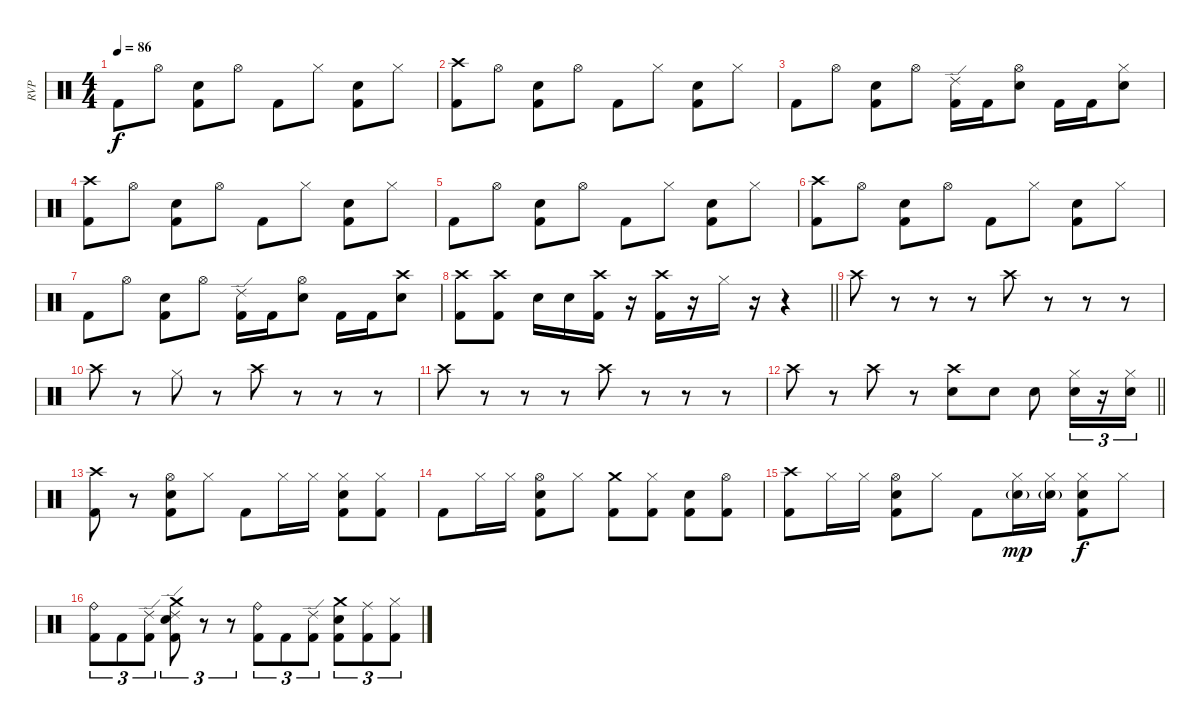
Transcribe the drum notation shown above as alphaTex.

\track ("RVP" "RVP") {instrument percussion}
\staff {score}
\articulation defaults
\ts (4 4)
\tempo 86
\clef neutral
\ks c "Kick (hit) 2".8{dy f} "Hi-Hat (open)".8
("Electric Snare (hit)" "Kick (hit) 2").8 "Hi-Hat (open)".8 "Kick (hit) 2".8 "Hi-Hat (closed)".8 ("Electric Snare (hit)" "Kick (hit) 2").8 "Hi-Hat (closed)".8 |
("Crash high (hit)" "Kick (hit) 2").8 "Hi-Hat (open)".8 ("Electric Snare (hit)" "Kick (hit) 2").8 "Hi-Hat (open)".8 "Kick (hit) 2".8 "Hi-Hat (closed)".8 ("Electric Snare (hit)" "Kick (hit) 2").8 "Hi-Hat (closed)".8 |
"Kick (hit) 2".8 "Hi-Hat (open)".8 ("Electric Snare (hit)" "Kick (hit) 2").8 "Hi-Hat (open)".8 ("Ride (edge) 2" "Kick (hit) 2").16 "Kick (hit) 2".16 ("Hi-Hat (open)" "Electric Snare (hit)").8 "Kick (hit) 2".16 "Kick (hit) 2".16 ("Hi-Hat (closed)" "Electric Snare (hit)").8 |
("Crash high (hit)" "Kick (hit) 2").8 "Hi-Hat (open)".8 ("Electric Snare (hit)" "Kick (hit) 2").8 "Hi-Hat (open)".8 "Kick (hit) 2".8 "Hi-Hat (closed)".8 ("Electric Snare (hit)" "Kick (hit) 2").8 "Hi-Hat (closed)".8 |
"Kick (hit) 2".8 "Hi-Hat (open)".8 ("Electric Snare (hit)" "Kick (hit) 2").8 "Hi-Hat (open)".8 "Kick (hit) 2".8 "Hi-Hat (closed)".8 ("Electric Snare (hit)" "Kick (hit) 2").8 "Hi-Hat (closed)".8 |
("Crash high (hit)" "Kick (hit) 2").8 "Hi-Hat (open)".8 ("Electric Snare (hit)" "Kick (hit) 2").8 "Hi-Hat (open)".8 "Kick (hit) 2".8 "Hi-Hat (closed)".8 ("Electric Snare (hit)" "Kick (hit) 2").8 "Hi-Hat (closed)".8 |
"Kick (hit) 2".8 "Hi-Hat (open)".8 ("Electric Snare (hit)" "Kick (hit) 2").8 "Hi-Hat (open)".8 ("Ride (edge) 2" "Kick (hit) 2").16 "Kick (hit) 2".16 ("Hi-Hat (open)" "Electric Snare (hit)").8 "Kick (hit) 2".16 "Kick (hit) 2".16 ("Crash high (hit)" "Electric Snare (hit)").8 |
\barLineRight lightlight
("Crash high (hit)" "Kick (hit) 2").8 ("Crash high (hit)" "Kick (hit) 2").8 "Electric Snare (hit)".16 "Electric Snare (hit)".16 ("Crash high (hit)" "Kick (hit) 2").16 r.16 ("Crash high (hit)" "Kick (hit) 2").16 r.16 "Hi-Hat (closed)".16 r.16 r.4 |
"Crash high (hit)".8 r.8 r.8 r.8 "Crash high (hit)".8 r.8 r.8 r.8 |
"Crash high (hit)".8 r.8 "Hi-Hat (closed)".8 r.8 "Crash high (hit)".8 r.8 r.8 r.8 |
"Crash high (hit)".8 r.8 r.8 r.8 "Crash high (hit)".8 r.8 r.8 r.8 |
\barLineRight lightlight "Crash high (hit)".8
r.8 "Crash high (hit)".8 r.8 ("Crash high (hit)" "Electric Snare (hit)").8 "Electric Snare (hit)".8 "Electric Snare (hit)".8 ("Hi-Hat (closed)" "Electric Snare (hit)").16{tu (3 2)} r.16{tu (3 2)} ("Hi-Hat (closed)" "Electric Snare (hit)").16{tu (3 2)} |
("Crash high (hit)" "Kick (hit) 2").8 r.8 ("Hi-Hat (open)" "Electric Snare (hit)" "Kick (hit) 2").8 "Hi-Hat (closed)".8 "Kick (hit) 2".8 "Hi-Hat (closed)".16 "Hi-Hat (closed)".16 ("Hi-Hat (closed)" "Electric Snare (hit)" "Kick (hit) 2").8 ("Hi-Hat (closed)" "Kick (hit) 2").8 |
"Kick (hit) 2".8 "Hi-Hat (closed)".16 "Hi-Hat (closed)".16 ("Hi-Hat (open)" "Electric Snare (hit)" "Kick (hit) 2").8 "Hi-Hat (closed)".8 ("Crash medium (hit)" "Kick (hit) 2").8 ("Hi-Hat (closed)" "Kick (hit) 2").8 ("Electric Snare (hit)" "Kick (hit) 2").8 ("Hi-Hat (open)" "Kick (hit) 2").8 |
("Crash high (hit)" "Kick (hit) 2").8 "Hi-Hat (closed)".16 "Hi-Hat (closed)".16 ("Hi-Hat (open)" "Electric Snare (hit)" "Kick (hit) 2").8 "Hi-Hat (closed)".8 "Kick (hit) 2".8 ("Hi-Hat (closed)" "Electric Snare (hit)"{g}).16{dy mp} ("Hi-Hat (closed)" "Electric Snare (hit)"{g}).16 ("Hi-Hat (closed)" "Electric Snare (hit)" "Kick (hit) 2").8{dy f} "Hi-Hat (closed)".8 |
("Ride (bell)" "Kick (hit) 2").8{tu (3 2)} "Kick (hit) 2".8{tu (3 2)} ("Ride (edge) 2" "Kick (hit) 2").8{tu (3 2)} ("Ride (edge) 2" "Crash medium (hit)" "Electric Snare (hit)" "Kick (hit) 2").8{tu (3 2)} r.8{tu (3 2)} r.8{tu (3 2)} ("Ride (bell)" "Kick (hit) 2").8{tu (3 2)} "Kick (hit) 2".8{tu (3 2)} ("Ride (edge) 2" "Kick (hit) 2").8{tu (3 2)} ("Crash medium (hit)" "Electric Snare (hit)" "Kick (hit) 2").8{tu (3 2)} ("Ride (middle)" "Kick (hit) 2").8{tu (3 2)} ("Hi-Hat (closed)" "Kick (hit) 2").8{tu (3 2)}
